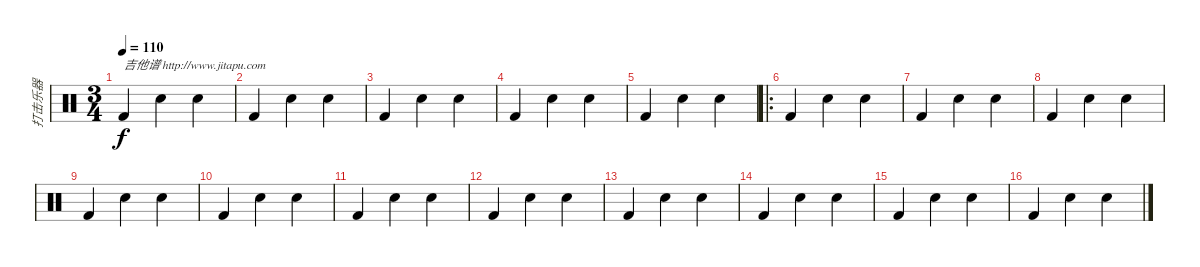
\track ("打击乐器" "打击乐器") {instrument percussion}
\staff {score}
\articulation defaults
\ts (3 4)
\tempo 110
\clef neutral
\ks c "Kick (hit) 2".4{txt "吉他谱 http://www.jitapu.com" dy f} "Snare (hit) 2".4 "Snare (hit) 2".4
|
"Kick (hit) 2".4 "Snare (hit) 2".4 "Snare (hit) 2".4 |
"Kick (hit) 2".4 "Snare (hit) 2".4 "Snare (hit) 2".4 |
"Kick (hit) 2".4 "Snare (hit) 2".4 "Snare (hit) 2".4 |
"Kick (hit) 2".4 "Snare (hit) 2".4 "Snare (hit) 2".4 |
\ro "Kick (hit) 2".4 "Snare (hit) 2".4 "Snare (hit) 2".4
|
"Kick (hit) 2".4 "Snare (hit) 2".4 "Snare (hit) 2".4 |
"Kick (hit) 2".4 "Snare (hit) 2".4 "Snare (hit) 2".4 |
"Kick (hit) 2".4 "Snare (hit) 2".4 "Snare (hit) 2".4 |
"Kick (hit) 2".4 "Snare (hit) 2".4 "Snare (hit) 2".4 |
"Kick (hit) 2".4 "Snare (hit) 2".4 "Snare (hit) 2".4 |
"Kick (hit) 2".4 "Snare (hit) 2".4 "Snare (hit) 2".4 |
"Kick (hit) 2".4 "Snare (hit) 2".4 "Snare (hit) 2".4 |
"Kick (hit) 2".4 "Snare (hit) 2".4 "Snare (hit) 2".4 |
"Kick (hit) 2".4 "Snare (hit) 2".4 "Snare (hit) 2".4 |
"Kick (hit) 2".4 "Snare (hit) 2".4 "Snare (hit) 2".4
